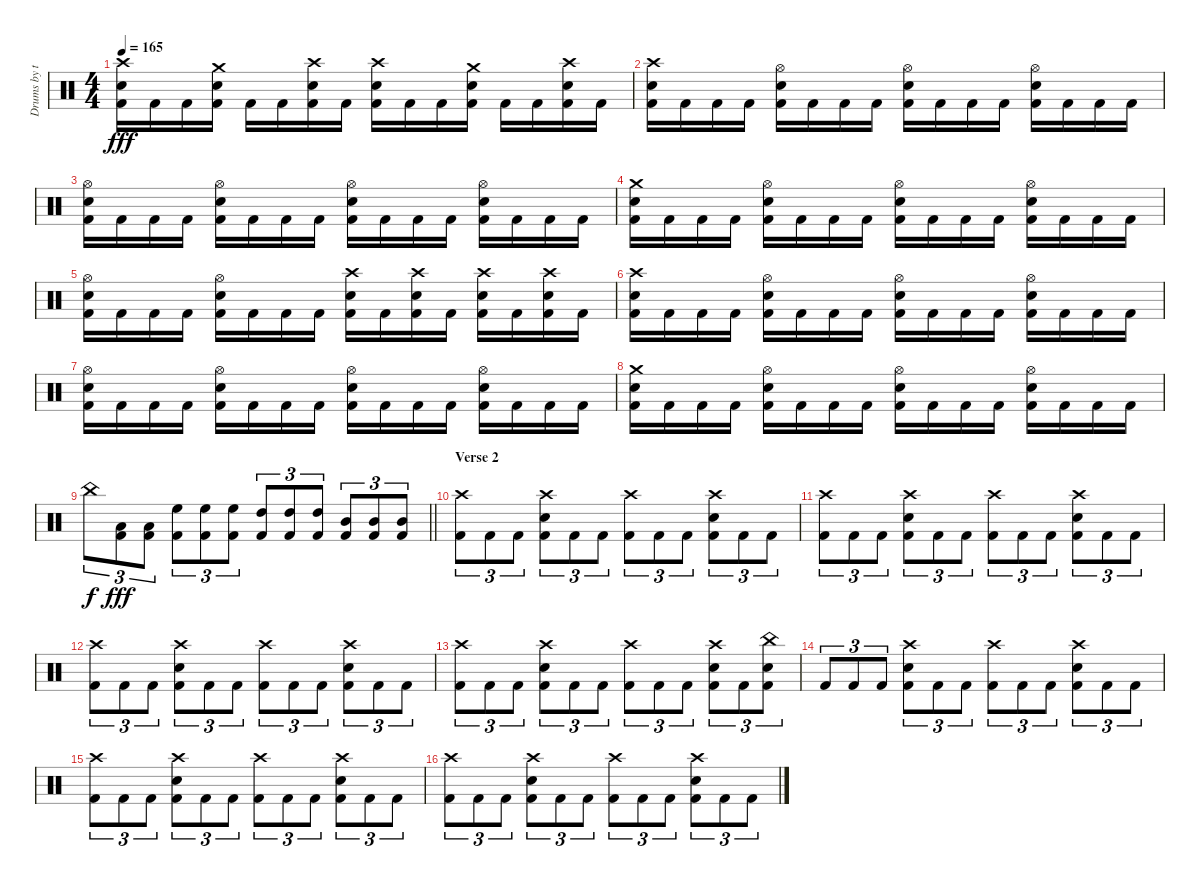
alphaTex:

\track ("Drums by terryn0" "Drums by t") {instrument percussion}
\staff {score}
\articulation defaults
\ts (4 4)
\tempo 165
\clef neutral
\ks c
("Crash high (hit)" "Electric Snare (hit)" "Kick (hit) 2").16{dy fff} "Kick (hit) 2".16 "Kick (hit) 2".16 ("Crash medium (hit)" "Electric Snare (hit)" "Kick (hit) 2").16 "Kick (hit) 2".16 "Kick (hit) 2".16 ("Crash high (hit)" "Electric Snare (hit)" "Kick (hit) 2").16 "Kick (hit) 2".16 ("Crash high (hit)" "Electric Snare (hit)" "Kick (hit) 2").16 "Kick (hit) 2".16 "Kick (hit) 2".16 ("Crash medium (hit)" "Electric Snare (hit)" "Kick (hit) 2").16 "Kick (hit) 2".16 "Kick (hit) 2".16 ("Crash high (hit)" "Electric Snare (hit)" "Kick (hit) 2").16 "Kick (hit) 2".16 |
("Crash high (hit)" "Electric Snare (hit)" "Kick (hit) 2").16 "Kick (hit) 2".16 "Kick (hit) 2".16 "Kick (hit) 2".16 ("Hi-Hat (open)" "Electric Snare (hit)" "Kick (hit) 2").16 "Kick (hit) 2".16 "Kick (hit) 2".16 "Kick (hit) 2".16 ("Hi-Hat (open)" "Electric Snare (hit)" "Kick (hit) 2").16 "Kick (hit) 2".16 "Kick (hit) 2".16 "Kick (hit) 2".16 ("Hi-Hat (open)" "Electric Snare (hit)" "Kick (hit) 2").16 "Kick (hit) 2".16 "Kick (hit) 2".16 "Kick (hit) 2".16 |
("Hi-Hat (open)" "Electric Snare (hit)" "Kick (hit) 2").16 "Kick (hit) 2".16 "Kick (hit) 2".16 "Kick (hit) 2".16 ("Hi-Hat (open)" "Electric Snare (hit)" "Kick (hit) 2").16 "Kick (hit) 2".16 "Kick (hit) 2".16 "Kick (hit) 2".16 ("Hi-Hat (open)" "Electric Snare (hit)" "Kick (hit) 2").16 "Kick (hit) 2".16 "Kick (hit) 2".16 "Kick (hit) 2".16 ("Hi-Hat (open)" "Electric Snare (hit)" "Kick (hit) 2").16 "Kick (hit) 2".16 "Kick (hit) 2".16 "Kick (hit) 2".16 |
("Crash medium (hit)" "Electric Snare (hit)" "Kick (hit) 2").16 "Kick (hit) 2".16 "Kick (hit) 2".16 "Kick (hit) 2".16 ("Hi-Hat (open)" "Electric Snare (hit)" "Kick (hit) 2").16 "Kick (hit) 2".16 "Kick (hit) 2".16 "Kick (hit) 2".16 ("Hi-Hat (open)" "Electric Snare (hit)" "Kick (hit) 2").16 "Kick (hit) 2".16 "Kick (hit) 2".16 "Kick (hit) 2".16 ("Hi-Hat (open)" "Electric Snare (hit)" "Kick (hit) 2").16 "Kick (hit) 2".16 "Kick (hit) 2".16 "Kick (hit) 2".16 |
("Hi-Hat (open)" "Electric Snare (hit)" "Kick (hit) 2").16 "Kick (hit) 2".16 "Kick (hit) 2".16 "Kick (hit) 2".16 ("Hi-Hat (open)" "Electric Snare (hit)" "Kick (hit) 2").16 "Kick (hit) 2".16 "Kick (hit) 2".16 "Kick (hit) 2".16 ("Crash high (hit)" "Electric Snare (hit)" "Kick (hit) 2").16 "Kick (hit) 2".16 ("Crash high (hit)" "Electric Snare (hit)" "Kick (hit) 2").16 "Kick (hit) 2".16 ("Crash high (hit)" "Electric Snare (hit)" "Kick (hit) 2").16 "Kick (hit) 2".16 ("Crash high (hit)" "Electric Snare (hit)" "Kick (hit) 2").16 "Kick (hit) 2".16 |
("Crash high (hit)" "Electric Snare (hit)" "Kick (hit) 2").16 "Kick (hit) 2".16 "Kick (hit) 2".16 "Kick (hit) 2".16 ("Hi-Hat (open)" "Electric Snare (hit)" "Kick (hit) 2").16 "Kick (hit) 2".16 "Kick (hit) 2".16 "Kick (hit) 2".16 ("Hi-Hat (open)" "Electric Snare (hit)" "Kick (hit) 2").16 "Kick (hit) 2".16 "Kick (hit) 2".16 "Kick (hit) 2".16 ("Hi-Hat (open)" "Electric Snare (hit)" "Kick (hit) 2").16 "Kick (hit) 2".16 "Kick (hit) 2".16 "Kick (hit) 2".16 |
("Hi-Hat (open)" "Electric Snare (hit)" "Kick (hit) 2").16 "Kick (hit) 2".16 "Kick (hit) 2".16 "Kick (hit) 2".16 ("Hi-Hat (open)" "Electric Snare (hit)" "Kick (hit) 2").16 "Kick (hit) 2".16 "Kick (hit) 2".16 "Kick (hit) 2".16 ("Hi-Hat (open)" "Electric Snare (hit)" "Kick (hit) 2").16 "Kick (hit) 2".16 "Kick (hit) 2".16 "Kick (hit) 2".16 ("Hi-Hat (open)" "Electric Snare (hit)" "Kick (hit) 2").16 "Kick (hit) 2".16 "Kick (hit) 2".16 "Kick (hit) 2".16 |
("Crash medium (hit)" "Electric Snare (hit)" "Kick (hit) 2").16 "Kick (hit) 2".16 "Kick (hit) 2".16 "Kick (hit) 2".16 ("Hi-Hat (open)" "Electric Snare (hit)" "Kick (hit) 2").16 "Kick (hit) 2".16 "Kick (hit) 2".16 "Kick (hit) 2".16 ("Hi-Hat (open)" "Electric Snare (hit)" "Kick (hit) 2").16 "Kick (hit) 2".16 "Kick (hit) 2".16 "Kick (hit) 2".16 ("Hi-Hat (open)" "Electric Snare (hit)" "Kick (hit) 2").16 "Kick (hit) 2".16 "Kick (hit) 2".16 "Kick (hit) 2".16 |
\barLineRight lightlight "China (hit)".8{tu (3 2) dy f}
("Low Tom (hit)" "Kick (hit) 2").8{tu (3 2) dy fff} ("Low Tom (hit)" "Kick (hit) 2").8{tu (3 2)} ("High Floor Tom (hit)" "Kick (hit) 2").8{tu (3 2)} ("High Floor Tom (hit)" "Kick (hit) 2").8{tu (3 2)} ("High Floor Tom (hit)" "Kick (hit) 2").8{tu (3 2)} ("High Tom (hit)" "Kick (hit) 2").8{tu (3 2)} ("High Tom (hit)" "Kick (hit) 2").8{tu (3 2)} ("High Tom (hit)" "Kick (hit) 2").8{tu (3 2)} ("Mid Tom (hit)" "Kick (hit) 2").8{tu (3 2)} ("Mid Tom (hit)" "Kick (hit) 2").8{tu (3 2)} ("Mid Tom (hit)" "Kick (hit) 2").8{tu (3 2)} |
\section ("" "Verse 2")
("Crash high (hit)" "Kick (hit) 2").8{tu (3 2)} "Kick (hit) 2".8{tu (3 2)} "Kick (hit) 2".8{tu (3 2)} ("Crash high (hit)" "Electric Snare (hit)" "Kick (hit) 2").8{tu (3 2)} "Kick (hit) 2".8{tu (3 2)} "Kick (hit) 2".8{tu (3 2)} ("Crash high (hit)" "Kick (hit) 2").8{tu (3 2)} "Kick (hit) 2".8{tu (3 2)} "Kick (hit) 2".8{tu (3 2)} ("Crash high (hit)" "Electric Snare (hit)" "Kick (hit) 2").8{tu (3 2)} "Kick (hit) 2".8{tu (3 2)} "Kick (hit) 2".8{tu (3 2)} |
("Crash high (hit)" "Kick (hit) 2").8{tu (3 2)} "Kick (hit) 2".8{tu (3 2)} "Kick (hit) 2".8{tu (3 2)} ("Crash high (hit)" "Electric Snare (hit)" "Kick (hit) 2").8{tu (3 2)} "Kick (hit) 2".8{tu (3 2)} "Kick (hit) 2".8{tu (3 2)} ("Crash high (hit)" "Kick (hit) 2").8{tu (3 2)} "Kick (hit) 2".8{tu (3 2)} "Kick (hit) 2".8{tu (3 2)} ("Crash high (hit)" "Electric Snare (hit)" "Kick (hit) 2").8{tu (3 2)} "Kick (hit) 2".8{tu (3 2)} "Kick (hit) 2".8{tu (3 2)} |
("Crash high (hit)" "Kick (hit) 2").8{tu (3 2)} "Kick (hit) 2".8{tu (3 2)} "Kick (hit) 2".8{tu (3 2)} ("Crash high (hit)" "Electric Snare (hit)" "Kick (hit) 2").8{tu (3 2)} "Kick (hit) 2".8{tu (3 2)} "Kick (hit) 2".8{tu (3 2)} ("Crash high (hit)" "Kick (hit) 2").8{tu (3 2)} "Kick (hit) 2".8{tu (3 2)} "Kick (hit) 2".8{tu (3 2)} ("Crash high (hit)" "Electric Snare (hit)" "Kick (hit) 2").8{tu (3 2)} "Kick (hit) 2".8{tu (3 2)} "Kick (hit) 2".8{tu (3 2)} |
("Crash high (hit)" "Kick (hit) 2").8{tu (3 2)} "Kick (hit) 2".8{tu (3 2)} "Kick (hit) 2".8{tu (3 2)} ("Crash high (hit)" "Electric Snare (hit)" "Kick (hit) 2").8{tu (3 2)} "Kick (hit) 2".8{tu (3 2)} "Kick (hit) 2".8{tu (3 2)} ("Crash high (hit)" "Kick (hit) 2").8{tu (3 2)} "Kick (hit) 2".8{tu (3 2)} "Kick (hit) 2".8{tu (3 2)} ("Crash high (hit)" "Electric Snare (hit)" "Kick (hit) 2").8{tu (3 2)} "Kick (hit) 2".8{tu (3 2)} ("China (hit)" "Electric Snare (hit)" "Kick (hit) 2").8{tu (3 2)} |
"Kick (hit) 2".8{tu (3 2)} "Kick (hit) 2".8{tu (3 2)} "Kick (hit) 2".8{tu (3 2)} ("Crash high (hit)" "Electric Snare (hit)" "Kick (hit) 2").8{tu (3 2)} "Kick (hit) 2".8{tu (3 2)} "Kick (hit) 2".8{tu (3 2)} ("Crash high (hit)" "Kick (hit) 2").8{tu (3 2)} "Kick (hit) 2".8{tu (3 2)} "Kick (hit) 2".8{tu (3 2)} ("Crash high (hit)" "Electric Snare (hit)" "Kick (hit) 2").8{tu (3 2)} "Kick (hit) 2".8{tu (3 2)} "Kick (hit) 2".8{tu (3 2)} |
("Crash high (hit)" "Kick (hit) 2").8{tu (3 2)} "Kick (hit) 2".8{tu (3 2)} "Kick (hit) 2".8{tu (3 2)} ("Crash high (hit)" "Electric Snare (hit)" "Kick (hit) 2").8{tu (3 2)} "Kick (hit) 2".8{tu (3 2)} "Kick (hit) 2".8{tu (3 2)} ("Crash high (hit)" "Kick (hit) 2").8{tu (3 2)} "Kick (hit) 2".8{tu (3 2)} "Kick (hit) 2".8{tu (3 2)} ("Crash high (hit)" "Electric Snare (hit)" "Kick (hit) 2").8{tu (3 2)} "Kick (hit) 2".8{tu (3 2)} "Kick (hit) 2".8{tu (3 2)} |
("Crash high (hit)" "Kick (hit) 2").8{tu (3 2)} "Kick (hit) 2".8{tu (3 2)} "Kick (hit) 2".8{tu (3 2)} ("Crash high (hit)" "Electric Snare (hit)" "Kick (hit) 2").8{tu (3 2)} "Kick (hit) 2".8{tu (3 2)} "Kick (hit) 2".8{tu (3 2)} ("Crash high (hit)" "Kick (hit) 2").8{tu (3 2)} "Kick (hit) 2".8{tu (3 2)} "Kick (hit) 2".8{tu (3 2)} ("Crash high (hit)" "Electric Snare (hit)" "Kick (hit) 2").8{tu (3 2)} "Kick (hit) 2".8{tu (3 2)} "Kick (hit) 2".8{tu (3 2)}
